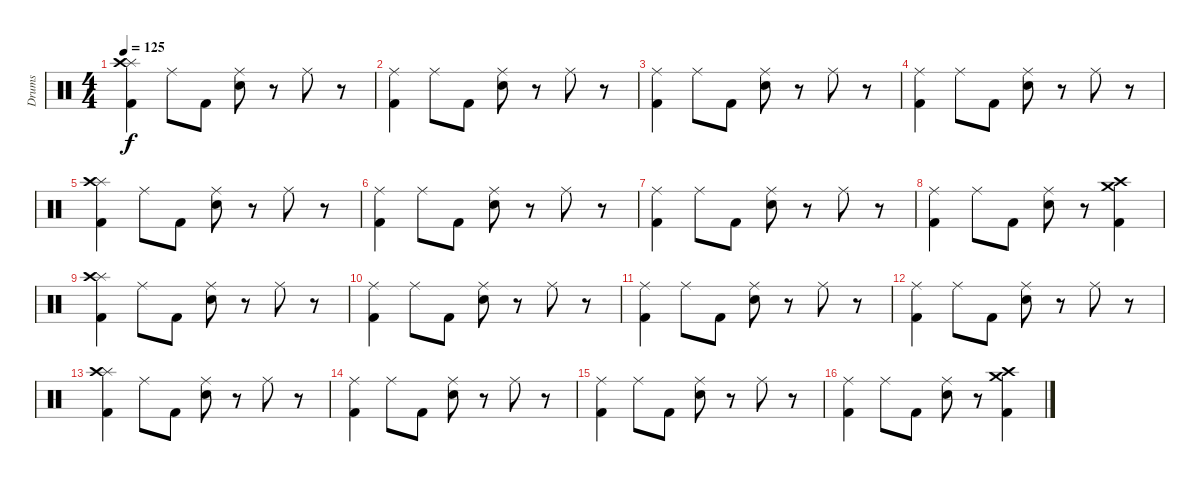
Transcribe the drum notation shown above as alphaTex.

\track ("Drums" "Drums") {instrument percussion}
\staff {score}
\articulation defaults
\ts (4 4)
\tempo 125
\clef neutral
\ks c
("Splash (hit)" "Crash high (hit)" "Kick (hit) 2").4{dy f} "Ride (middle)".8 "Kick (hit) 2".8 ("Ride (middle)" "Snare (hit) 2").8 r.8 "Ride (middle)".8 r.8 |
("Ride (middle)" "Kick (hit) 2").4 "Ride (middle)".8 "Kick (hit) 2".8 ("Ride (middle)" "Snare (hit) 2").8 r.8 "Ride (middle)".8 r.8 |
("Ride (middle)" "Kick (hit) 2").4 "Ride (middle)".8 "Kick (hit) 2".8 ("Ride (middle)" "Snare (hit) 2").8 r.8 "Ride (middle)".8 r.8 |
("Ride (middle)" "Kick (hit) 2").4 "Ride (middle)".8 "Kick (hit) 2".8 ("Ride (middle)" "Snare (hit) 2").8 r.8 "Ride (middle)".8 r.8 |
("Splash (hit)" "Crash high (hit)" "Kick (hit) 2").4 "Ride (middle)".8 "Kick (hit) 2".8 ("Ride (middle)" "Snare (hit) 2").8 r.8 "Ride (middle)".8 r.8 |
("Ride (middle)" "Kick (hit) 2").4 "Ride (middle)".8 "Kick (hit) 2".8 ("Ride (middle)" "Snare (hit) 2").8 r.8 "Ride (middle)".8 r.8 |
("Ride (middle)" "Kick (hit) 2").4 "Ride (middle)".8 "Kick (hit) 2".8 ("Ride (middle)" "Snare (hit) 2").8 r.8 "Ride (middle)".8 r.8 |
("Ride (middle)" "Kick (hit) 2").4 "Ride (middle)".8 "Kick (hit) 2".8 ("Ride (middle)" "Snare (hit) 2").8 r.8 ("Crash medium (hit)" "Crash high (hit)" "Kick (hit) 2").4 |
("Splash (hit)" "Crash high (hit)" "Kick (hit) 2").4 "Ride (middle)".8 "Kick (hit) 2".8 ("Ride (middle)" "Snare (hit) 2").8 r.8 "Ride (middle)".8 r.8 |
("Ride (middle)" "Kick (hit) 2").4 "Ride (middle)".8 "Kick (hit) 2".8 ("Ride (middle)" "Snare (hit) 2").8 r.8 "Ride (middle)".8 r.8 |
("Ride (middle)" "Kick (hit) 2").4 "Ride (middle)".8 "Kick (hit) 2".8 ("Ride (middle)" "Snare (hit) 2").8 r.8 "Ride (middle)".8 r.8 |
("Ride (middle)" "Kick (hit) 2").4 "Ride (middle)".8 "Kick (hit) 2".8 ("Ride (middle)" "Snare (hit) 2").8 r.8 "Ride (middle)".8 r.8 |
("Splash (hit)" "Crash high (hit)" "Kick (hit) 2").4 "Ride (middle)".8 "Kick (hit) 2".8 ("Ride (middle)" "Snare (hit) 2").8 r.8 "Ride (middle)".8 r.8 |
("Ride (middle)" "Kick (hit) 2").4 "Ride (middle)".8 "Kick (hit) 2".8 ("Ride (middle)" "Snare (hit) 2").8 r.8 "Ride (middle)".8 r.8 |
("Ride (middle)" "Kick (hit) 2").4 "Ride (middle)".8 "Kick (hit) 2".8 ("Ride (middle)" "Snare (hit) 2").8 r.8 "Ride (middle)".8 r.8 |
("Ride (middle)" "Kick (hit) 2").4 "Ride (middle)".8 "Kick (hit) 2".8 ("Ride (middle)" "Snare (hit) 2").8 r.8 ("Crash medium (hit)" "Crash high (hit)" "Kick (hit) 2").4
